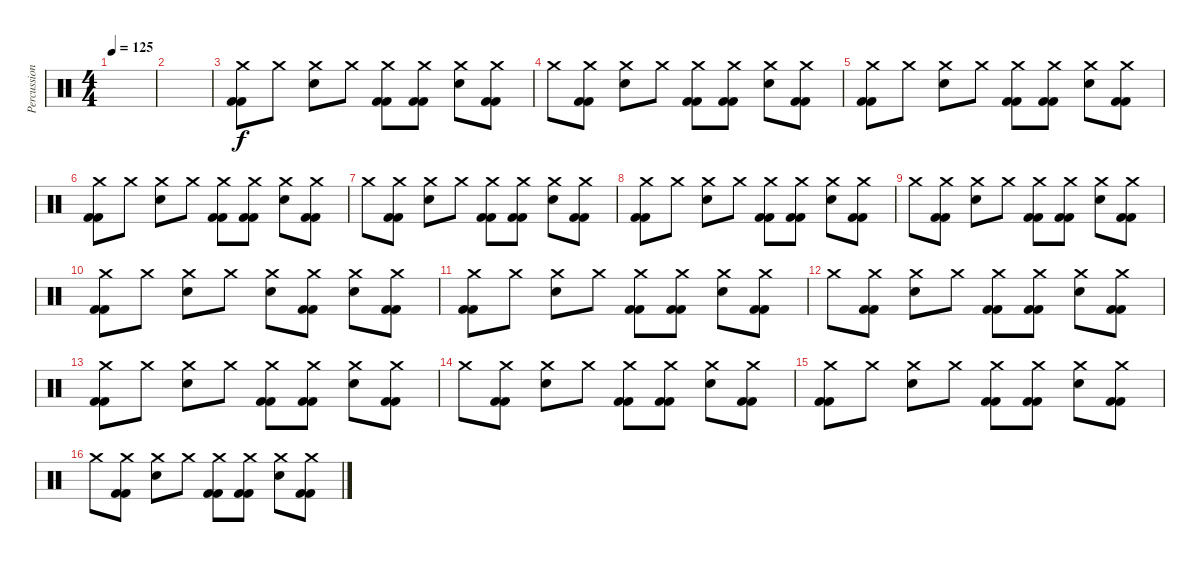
\track ("Percussion" "Percussion") {instrument percussion}
\staff {score}
\articulation defaults
\ts (4 4)
\tempo 125
\clef neutral
\ks c
|
|
("Crash medium (hit)" "Kick (hit) 2" "Kick (hit) 2").8 "Crash medium (hit)".8 ("Crash medium (hit)" "Snare (hit) 2").8 "Crash medium (hit)".8 ("Crash medium (hit)" "Kick (hit) 2" "Kick (hit) 2").8 ("Crash medium (hit)" "Kick (hit) 2" "Kick (hit) 2").8 ("Crash medium (hit)" "Snare (hit) 2").8 ("Crash medium (hit)" "Kick (hit) 2" "Kick (hit) 2").8 |
"Crash medium (hit)".8 ("Crash medium (hit)" "Kick (hit) 2" "Kick (hit) 2").8 ("Crash medium (hit)" "Snare (hit) 2").8 "Crash medium (hit)".8 ("Crash medium (hit)" "Kick (hit) 2" "Kick (hit) 2").8 ("Crash medium (hit)" "Kick (hit) 2" "Kick (hit) 2").8 ("Crash medium (hit)" "Snare (hit) 2").8 ("Crash medium (hit)" "Kick (hit) 2" "Kick (hit) 2").8 |
("Crash medium (hit)" "Kick (hit) 2" "Kick (hit) 2").8 "Crash medium (hit)".8 ("Crash medium (hit)" "Snare (hit) 2").8 "Crash medium (hit)".8 ("Crash medium (hit)" "Kick (hit) 2" "Kick (hit) 2").8 ("Crash medium (hit)" "Kick (hit) 2" "Kick (hit) 2").8 ("Crash medium (hit)" "Snare (hit) 2").8 ("Crash medium (hit)" "Kick (hit) 2" "Kick (hit) 2").8 |
("Crash medium (hit)" "Kick (hit) 2" "Kick (hit) 2").8 "Crash medium (hit)".8 ("Crash medium (hit)" "Snare (hit) 2").8 "Crash medium (hit)".8 ("Crash medium (hit)" "Kick (hit) 2" "Kick (hit) 2").8 ("Crash medium (hit)" "Kick (hit) 2" "Kick (hit) 2").8 ("Crash medium (hit)" "Snare (hit) 2").8 ("Crash medium (hit)" "Kick (hit) 2" "Kick (hit) 2").8 |
"Crash medium (hit)".8 ("Crash medium (hit)" "Kick (hit) 2" "Kick (hit) 2").8 ("Crash medium (hit)" "Snare (hit) 2").8 "Crash medium (hit)".8 ("Crash medium (hit)" "Kick (hit) 2" "Kick (hit) 2").8 ("Crash medium (hit)" "Kick (hit) 2" "Kick (hit) 2").8 ("Crash medium (hit)" "Snare (hit) 2").8 ("Crash medium (hit)" "Kick (hit) 2" "Kick (hit) 2").8 |
("Crash medium (hit)" "Kick (hit) 2" "Kick (hit) 2").8 "Crash medium (hit)".8 ("Crash medium (hit)" "Snare (hit) 2").8 "Crash medium (hit)".8 ("Crash medium (hit)" "Kick (hit) 2" "Kick (hit) 2").8 ("Crash medium (hit)" "Kick (hit) 2" "Kick (hit) 2").8 ("Crash medium (hit)" "Snare (hit) 2").8 ("Crash medium (hit)" "Kick (hit) 2" "Kick (hit) 2").8 |
"Crash medium (hit)".8 ("Crash medium (hit)" "Kick (hit) 2" "Kick (hit) 2").8 ("Crash medium (hit)" "Snare (hit) 2").8 "Crash medium (hit)".8 ("Crash medium (hit)" "Kick (hit) 2" "Kick (hit) 2").8 ("Crash medium (hit)" "Kick (hit) 2" "Kick (hit) 2").8 ("Crash medium (hit)" "Snare (hit) 2").8 ("Crash medium (hit)" "Kick (hit) 2" "Kick (hit) 2").8 |
("Crash medium (hit)" "Kick (hit) 2" "Kick (hit) 2").8 "Crash medium (hit)".8 ("Crash medium (hit)" "Snare (hit) 2").8 "Crash medium (hit)".8 ("Crash medium (hit)" "Snare (hit) 2").8 ("Crash medium (hit)" "Kick (hit) 2" "Kick (hit) 2").8 ("Crash medium (hit)" "Snare (hit) 2").8 ("Crash medium (hit)" "Kick (hit) 2" "Kick (hit) 2").8 |
("Crash medium (hit)" "Kick (hit) 2" "Kick (hit) 2").8 "Crash medium (hit)".8 ("Crash medium (hit)" "Snare (hit) 2").8 "Crash medium (hit)".8 ("Crash medium (hit)" "Kick (hit) 2" "Kick (hit) 2").8 ("Crash medium (hit)" "Kick (hit) 2" "Kick (hit) 2").8 ("Crash medium (hit)" "Snare (hit) 2").8 ("Crash medium (hit)" "Kick (hit) 2" "Kick (hit) 2").8 |
"Crash medium (hit)".8 ("Crash medium (hit)" "Kick (hit) 2" "Kick (hit) 2").8 ("Crash medium (hit)" "Snare (hit) 2").8 "Crash medium (hit)".8 ("Crash medium (hit)" "Kick (hit) 2" "Kick (hit) 2").8 ("Crash medium (hit)" "Kick (hit) 2" "Kick (hit) 2").8 ("Crash medium (hit)" "Snare (hit) 2").8 ("Crash medium (hit)" "Kick (hit) 2" "Kick (hit) 2").8 |
("Crash medium (hit)" "Kick (hit) 2" "Kick (hit) 2").8 "Crash medium (hit)".8 ("Crash medium (hit)" "Snare (hit) 2").8 "Crash medium (hit)".8 ("Crash medium (hit)" "Kick (hit) 2" "Kick (hit) 2").8 ("Crash medium (hit)" "Kick (hit) 2" "Kick (hit) 2").8 ("Crash medium (hit)" "Snare (hit) 2").8 ("Crash medium (hit)" "Kick (hit) 2" "Kick (hit) 2").8 |
"Crash medium (hit)".8 ("Crash medium (hit)" "Kick (hit) 2" "Kick (hit) 2").8 ("Crash medium (hit)" "Snare (hit) 2").8 "Crash medium (hit)".8 ("Crash medium (hit)" "Kick (hit) 2" "Kick (hit) 2").8 ("Crash medium (hit)" "Kick (hit) 2" "Kick (hit) 2").8 ("Crash medium (hit)" "Snare (hit) 2").8 ("Crash medium (hit)" "Kick (hit) 2" "Kick (hit) 2").8 |
("Crash medium (hit)" "Kick (hit) 2" "Kick (hit) 2").8 "Crash medium (hit)".8 ("Crash medium (hit)" "Snare (hit) 2").8 "Crash medium (hit)".8 ("Crash medium (hit)" "Kick (hit) 2" "Kick (hit) 2").8 ("Crash medium (hit)" "Kick (hit) 2" "Kick (hit) 2").8 ("Crash medium (hit)" "Snare (hit) 2").8 ("Crash medium (hit)" "Kick (hit) 2" "Kick (hit) 2").8 |
"Crash medium (hit)".8 ("Crash medium (hit)" "Kick (hit) 2" "Kick (hit) 2").8 ("Crash medium (hit)" "Snare (hit) 2").8 "Crash medium (hit)".8 ("Crash medium (hit)" "Kick (hit) 2" "Kick (hit) 2").8 ("Crash medium (hit)" "Kick (hit) 2" "Kick (hit) 2").8 ("Crash medium (hit)" "Snare (hit) 2").8 ("Crash medium (hit)" "Kick (hit) 2" "Kick (hit) 2").8
